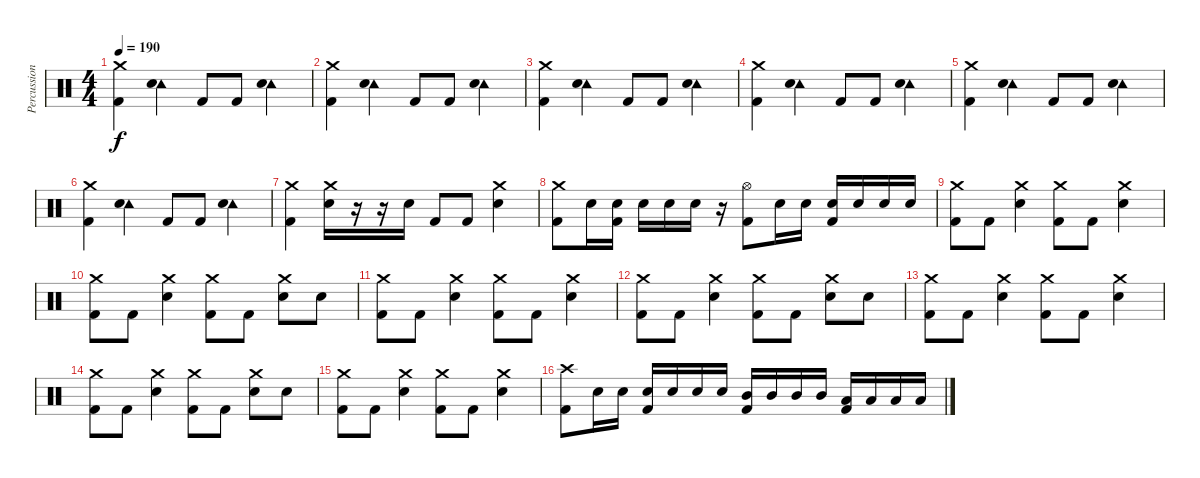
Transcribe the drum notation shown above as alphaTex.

\track ("Percussion" "Percussion") {instrument percussion}
\staff {score}
\articulation defaults
\ts (4 4)
\tempo 190
\clef neutral
\ks c
("Crash medium (hit)" "Kick (hit) 2").4{dy f} ("Tambourine (hit)" "Snare (hit) 2").4 "Kick (hit) 2".8 "Kick (hit) 2".8 ("Tambourine (hit)" "Snare (hit) 2").4 |
("Crash medium (hit)" "Kick (hit) 2").4 ("Tambourine (hit)" "Snare (hit) 2").4 "Kick (hit) 2".8 "Kick (hit) 2".8 ("Tambourine (hit)" "Snare (hit) 2").4 |
("Crash medium (hit)" "Kick (hit) 2").4 ("Tambourine (hit)" "Snare (hit) 2").4 "Kick (hit) 2".8 "Kick (hit) 2".8 ("Tambourine (hit)" "Snare (hit) 2").4 |
("Crash medium (hit)" "Kick (hit) 2").4 ("Tambourine (hit)" "Snare (hit) 2").4 "Kick (hit) 2".8 "Kick (hit) 2".8 ("Tambourine (hit)" "Snare (hit) 2").4 |
("Crash medium (hit)" "Kick (hit) 2").4 ("Tambourine (hit)" "Snare (hit) 2").4 "Kick (hit) 2".8 "Kick (hit) 2".8 ("Tambourine (hit)" "Snare (hit) 2").4 |
("Crash medium (hit)" "Kick (hit) 2").4 ("Tambourine (hit)" "Snare (hit) 2").4 "Kick (hit) 2".8 "Kick (hit) 2".8 ("Tambourine (hit)" "Snare (hit) 2").4 |
("Crash medium (hit)" "Kick (hit) 2").4 ("Crash medium (hit)" "Snare (hit) 2").16 r.16 r.16 "Snare (hit) 2".16 "Kick (hit) 2".8 "Kick (hit) 2".8 ("Crash medium (hit)" "Snare (hit) 2").4 |
("Crash medium (hit)" "Kick (hit) 2").8 "Snare (hit) 2".16 ("Snare (hit) 2" "Kick (hit) 2").16 "Snare (hit) 2".16 "Snare (hit) 2".16 "Snare (hit) 2".16 r.16 ("Hi-Hat (open)" "Kick (hit) 2").8 "Snare (hit) 2".16 "Snare (hit) 2".16 ("Snare (hit) 2" "Kick (hit) 2").16 "Snare (hit) 2".16 "Snare (hit) 2".16 "Snare (hit) 2".16 |
("Crash medium (hit)" "Kick (hit) 2").8 "Kick (hit) 2".8 ("Crash medium (hit)" "Snare (hit) 2").4 ("Crash medium (hit)" "Kick (hit) 2").8 "Kick (hit) 2".8 ("Crash medium (hit)" "Snare (hit) 2").4 |
("Crash medium (hit)" "Kick (hit) 2").8 "Kick (hit) 2".8 ("Crash medium (hit)" "Snare (hit) 2").4 ("Crash medium (hit)" "Kick (hit) 2").8 "Kick (hit) 2".8 ("Crash medium (hit)" "Snare (hit) 2").8 "Snare (hit) 2".8 |
("Crash medium (hit)" "Kick (hit) 2").8 "Kick (hit) 2".8 ("Crash medium (hit)" "Snare (hit) 2").4 ("Crash medium (hit)" "Kick (hit) 2").8 "Kick (hit) 2".8 ("Crash medium (hit)" "Snare (hit) 2").4 |
("Crash medium (hit)" "Kick (hit) 2").8 "Kick (hit) 2".8 ("Crash medium (hit)" "Snare (hit) 2").4 ("Crash medium (hit)" "Kick (hit) 2").8 "Kick (hit) 2".8 ("Crash medium (hit)" "Snare (hit) 2").8 "Snare (hit) 2".8 |
("Crash medium (hit)" "Kick (hit) 2").8 "Kick (hit) 2".8 ("Crash medium (hit)" "Snare (hit) 2").4 ("Crash medium (hit)" "Kick (hit) 2").8 "Kick (hit) 2".8 ("Crash medium (hit)" "Snare (hit) 2").4 |
("Crash medium (hit)" "Kick (hit) 2").8 "Kick (hit) 2".8 ("Crash medium (hit)" "Snare (hit) 2").4 ("Crash medium (hit)" "Kick (hit) 2").8 "Kick (hit) 2".8 ("Crash medium (hit)" "Snare (hit) 2").8 "Snare (hit) 2".8 |
("Crash medium (hit)" "Kick (hit) 2").8 "Kick (hit) 2".8 ("Crash medium (hit)" "Snare (hit) 2").4 ("Crash medium (hit)" "Kick (hit) 2").8 "Kick (hit) 2".8 ("Crash medium (hit)" "Snare (hit) 2").4 |
("Crash high (hit)" "Kick (hit) 2").8 "Snare (hit) 2".16 "Snare (hit) 2".16 ("Snare (hit) 2" "Kick (hit) 2").16 "Snare (hit) 2".16 "Snare (hit) 2".16 "Snare (hit) 2".16 ("Mid Tom (hit)" "Kick (hit) 2").16 "Mid Tom (hit)".16 "Mid Tom (hit)".16 "Mid Tom (hit)".16 ("Low Tom (hit)" "Kick (hit) 2").16 "Low Tom (hit)".16 "Low Tom (hit)".16 "Low Tom (hit)".16
